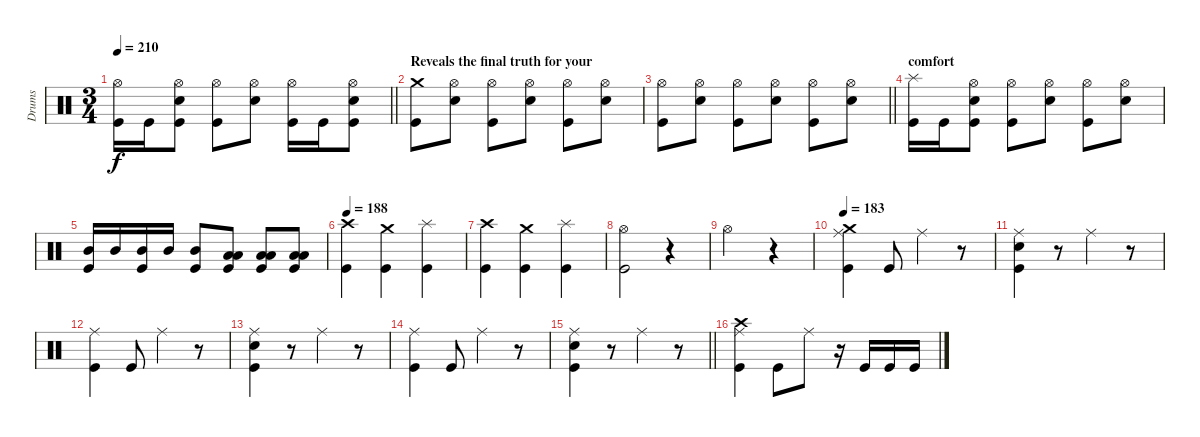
\track ("Drums" "Drums") {instrument percussion}
\staff {score}
\articulation defaults
\ts (3 4)
\tempo 210
\clef neutral
\barLineRight lightlight
\ks c
("Hi-Hat (open)" "Kick (hit)").16{dy f} "Kick (hit)".16 ("Hi-Hat (open)" "Snare (hit) 2" "Kick (hit)").8 ("Hi-Hat (open)" "Kick (hit)").8 ("Hi-Hat (open)" "Snare (hit) 2").8 ("Hi-Hat (open)" "Kick (hit)").16 "Kick (hit)".16 ("Hi-Hat (open)" "Snare (hit) 2" "Kick (hit)").8 |
\section ("" "Reveals the final truth for your ")
("Crash medium (hit)" "Kick (hit)").8 ("Hi-Hat (open)" "Snare (hit) 2").8 ("Hi-Hat (open)" "Kick (hit)").8 ("Hi-Hat (open)" "Snare (hit) 2").8 ("Hi-Hat (open)" "Kick (hit)").8 ("Hi-Hat (open)" "Snare (hit) 2").8 |
\barLineRight lightlight
("Hi-Hat (open)" "Kick (hit)").8 ("Hi-Hat (open)" "Snare (hit) 2").8 ("Hi-Hat (open)" "Kick (hit)").8 ("Hi-Hat (open)" "Snare (hit) 2").8 ("Hi-Hat (open)" "Kick (hit)").8 ("Hi-Hat (open)" "Snare (hit) 2").8 |
\section ("" "comfort ")
("Splash (hit)" "Kick (hit)").16 "Kick (hit)".16 ("Hi-Hat (open)" "Snare (hit) 2" "Kick (hit)").8 ("Hi-Hat (open)" "Kick (hit)").8 ("Hi-Hat (open)" "Snare (hit) 2").8 ("Hi-Hat (open)" "Kick (hit)").8 ("Hi-Hat (open)" "Snare (hit) 2").8 |
("Mid Tom (hit)" "Kick (hit)").16 "Mid Tom (hit)".16 ("Mid Tom (hit)" "Kick (hit)").16 "Mid Tom (hit)".16 ("Mid Tom (hit)" "Kick (hit)").8 ("Low Tom (hit)" "Low Tom (hit)" "Kick (hit)").8 ("Low Tom (hit)" "Low Tom (hit)" "Kick (hit)").8 ("Low Tom (hit)" "Low Tom (hit)" "Kick (hit)").8 |
\tempo 188
("Crash high (hit)" "Kick (hit)").4 ("Crash medium (hit)" "Kick (hit)").4 ("Splash (hit)" "Kick (hit)").4 |
("Crash high (hit)" "Kick (hit)").4 ("Crash medium (hit)" "Kick (hit)").4 ("Splash (hit)" "Kick (hit)").4 |
("Hi-Hat (open)" "Kick (hit)").2 r.4 |
"Hi-Hat (open)".2 r.4 |
\tempo 183
("Crash medium (hit)" "Ride (middle)" "Kick (hit)").4 "Kick (hit)".8 "Ride (middle)".4 r.8 |
("Ride (middle)" "Snare (hit) 2" "Kick (hit)").4 r.8 "Ride (middle)".4 r.8 |
("Ride (middle)" "Kick (hit)").4 "Kick (hit)".8 "Ride (middle)".4 r.8 |
("Ride (middle)" "Snare (hit) 2" "Kick (hit)").4 r.8 "Ride (middle)".4 r.8 |
("Ride (middle)" "Kick (hit)").4 "Kick (hit)".8 "Ride (middle)".4 r.8 |
\barLineRight lightlight
("Ride (middle)" "Snare (hit) 2" "Kick (hit)").4 r.8 "Ride (middle)".4 r.8 |
("Crash high (hit)" "Ride (middle)" "Kick (hit)").4 "Kick (hit)".8 "Ride (middle)".8 r.16 "Kick (hit)".16 "Kick (hit)".16 "Kick (hit)".16
